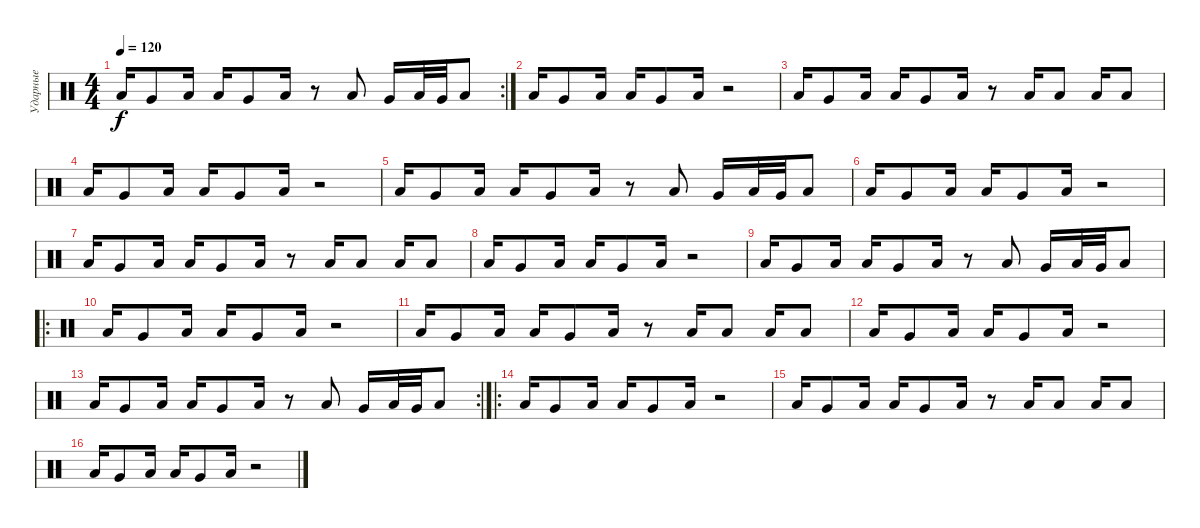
\track ("Ударные" "Ударные") {instrument percussion}
\staff {score}
\articulation defaults
\rc 2
\ts (4 4)
\tempo 120
\clef neutral
\ks c "Low Floor Tom (hit)".16{dy f} "Very Low Tom (hit)".8 "Low Tom (hit)".16 "Low Floor Tom (hit)".16 "Very Low Tom (hit)".8 "Low Tom (hit)".16
r.8 "Low Tom (hit)".8 "Very Low Tom (hit)".16 "Low Tom (hit)".32 "Very Low Tom (hit)".32 "Low Tom (hit)".8 |
"Low Floor Tom (hit)".16 "Very Low Tom (hit)".8 "Low Tom (hit)".16 "Low Floor Tom (hit)".16 "Very Low Tom (hit)".8 "Low Tom (hit)".16 r.2 |
"Low Floor Tom (hit)".16 "Very Low Tom (hit)".8 "Low Tom (hit)".16 "Low Floor Tom (hit)".16 "Very Low Tom (hit)".8 "Low Tom (hit)".16 r.8 "Low Tom (hit)".16 "Low Tom (hit)".8 "Low Tom (hit)".16 "Low Tom (hit)".8 |
"Low Floor Tom (hit)".16 "Very Low Tom (hit)".8 "Low Tom (hit)".16 "Low Floor Tom (hit)".16 "Very Low Tom (hit)".8 "Low Tom (hit)".16 r.2 |
"Low Floor Tom (hit)".16 "Very Low Tom (hit)".8 "Low Tom (hit)".16 "Low Floor Tom (hit)".16 "Very Low Tom (hit)".8 "Low Tom (hit)".16 r.8 "Low Tom (hit)".8 "Very Low Tom (hit)".16 "Low Tom (hit)".32 "Very Low Tom (hit)".32 "Low Tom (hit)".8 |
"Low Floor Tom (hit)".16 "Very Low Tom (hit)".8 "Low Tom (hit)".16 "Low Floor Tom (hit)".16 "Very Low Tom (hit)".8 "Low Tom (hit)".16 r.2 |
"Low Floor Tom (hit)".16 "Very Low Tom (hit)".8 "Low Tom (hit)".16 "Low Floor Tom (hit)".16 "Very Low Tom (hit)".8 "Low Tom (hit)".16 r.8 "Low Tom (hit)".16 "Low Tom (hit)".8 "Low Tom (hit)".16 "Low Tom (hit)".8 |
"Low Floor Tom (hit)".16 "Very Low Tom (hit)".8 "Low Tom (hit)".16 "Low Floor Tom (hit)".16 "Very Low Tom (hit)".8 "Low Tom (hit)".16 r.2 |
"Low Floor Tom (hit)".16 "Very Low Tom (hit)".8 "Low Tom (hit)".16 "Low Floor Tom (hit)".16 "Very Low Tom (hit)".8 "Low Tom (hit)".16 r.8 "Low Tom (hit)".8 "Very Low Tom (hit)".16 "Low Tom (hit)".32 "Very Low Tom (hit)".32 "Low Tom (hit)".8 |
\ro "Low Floor Tom (hit)".16 "Very Low Tom (hit)".8 "Low Tom (hit)".16 "Low Floor Tom (hit)".16 "Very Low Tom (hit)".8 "Low Tom (hit)".16
r.2 |
"Low Floor Tom (hit)".16 "Very Low Tom (hit)".8 "Low Tom (hit)".16 "Low Floor Tom (hit)".16 "Very Low Tom (hit)".8 "Low Tom (hit)".16 r.8 "Low Tom (hit)".16 "Low Tom (hit)".8 "Low Tom (hit)".16 "Low Tom (hit)".8 |
"Low Floor Tom (hit)".16 "Very Low Tom (hit)".8 "Low Tom (hit)".16 "Low Floor Tom (hit)".16 "Very Low Tom (hit)".8 "Low Tom (hit)".16 r.2 |
\rc 2 "Low Floor Tom (hit)".16 "Very Low Tom (hit)".8 "Low Tom (hit)".16 "Low Floor Tom (hit)".16 "Very Low Tom (hit)".8 "Low Tom (hit)".16
r.8 "Low Tom (hit)".8 "Very Low Tom (hit)".16 "Low Tom (hit)".32 "Very Low Tom (hit)".32 "Low Tom (hit)".8 |
\ro "Low Floor Tom (hit)".16 "Very Low Tom (hit)".8 "Low Tom (hit)".16 "Low Floor Tom (hit)".16 "Very Low Tom (hit)".8 "Low Tom (hit)".16
r.2 |
"Low Floor Tom (hit)".16 "Very Low Tom (hit)".8 "Low Tom (hit)".16 "Low Floor Tom (hit)".16 "Very Low Tom (hit)".8 "Low Tom (hit)".16 r.8 "Low Tom (hit)".16 "Low Tom (hit)".8 "Low Tom (hit)".16 "Low Tom (hit)".8 |
"Low Floor Tom (hit)".16 "Very Low Tom (hit)".8 "Low Tom (hit)".16 "Low Floor Tom (hit)".16 "Very Low Tom (hit)".8 "Low Tom (hit)".16 r.2
